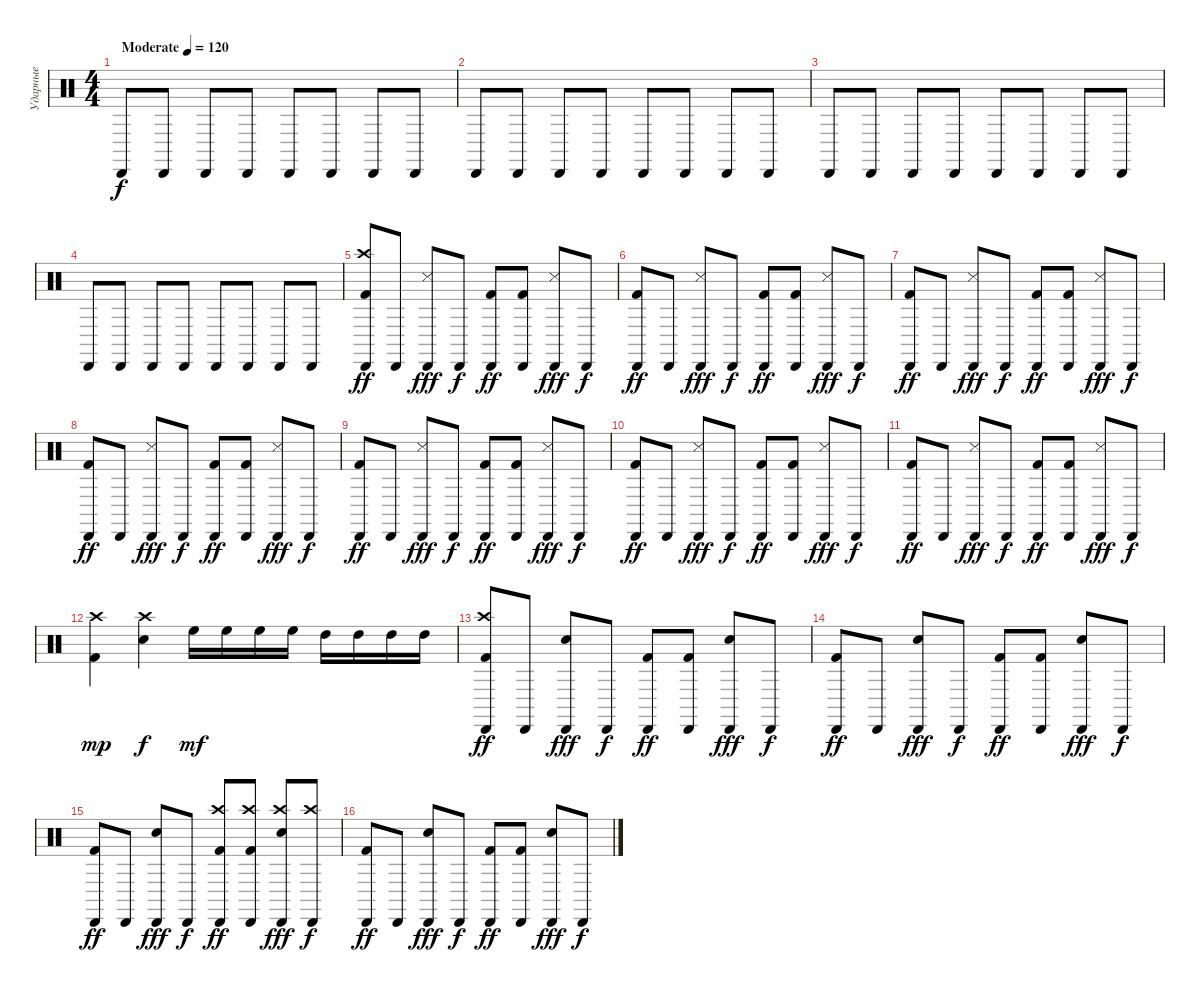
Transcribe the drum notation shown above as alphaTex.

\track ("Ударные" "Ударные") {instrument percussion}
\staff {score}
\articulation defaults
\ts (4 4)
\tempo (120 "Moderate")
\clef neutral
\ks c "Cabasa (hit)".8{dy f} "Cabasa (hit)".8 "Cabasa (hit)".8 "Cabasa (hit)".8 "Cabasa (hit)".8 "Cabasa (hit)".8 "Cabasa (hit)".8 "Cabasa (hit)".8
|
"Cabasa (hit)".8 "Cabasa (hit)".8 "Cabasa (hit)".8 "Cabasa (hit)".8 "Cabasa (hit)".8 "Cabasa (hit)".8 "Cabasa (hit)".8 "Cabasa (hit)".8 |
"Cabasa (hit)".8 "Cabasa (hit)".8 "Cabasa (hit)".8 "Cabasa (hit)".8 "Cabasa (hit)".8 "Cabasa (hit)".8 "Cabasa (hit)".8 "Cabasa (hit)".8 |
"Cabasa (hit)".8 "Cabasa (hit)".8 "Cabasa (hit)".8 "Cabasa (hit)".8 "Cabasa (hit)".8 "Cabasa (hit)".8 "Cabasa (hit)".8 "Cabasa (hit)".8 |
("Cabasa (hit)" "Kick (hit) 2" "Crash high (hit)").8{dy ff} "Cabasa (hit)".8 ("Snare (side stick) 3" "Cabasa (hit)").8{dy fff} "Cabasa (hit)".8{dy f} ("Cabasa (hit)" "Kick (hit) 2").8{dy ff} ("Cabasa (hit)" "Kick (hit) 2").8 ("Snare (side stick) 3" "Cabasa (hit)").8{dy fff} "Cabasa (hit)".8{dy f} |
("Cabasa (hit)" "Kick (hit) 2").8{dy ff} "Cabasa (hit)".8 ("Snare (side stick) 3" "Cabasa (hit)").8{dy fff} "Cabasa (hit)".8{dy f} ("Cabasa (hit)" "Kick (hit) 2").8{dy ff} ("Cabasa (hit)" "Kick (hit) 2").8 ("Snare (side stick) 3" "Cabasa (hit)").8{dy fff} "Cabasa (hit)".8{dy f} |
("Cabasa (hit)" "Kick (hit) 2").8{dy ff} "Cabasa (hit)".8 ("Snare (side stick) 3" "Cabasa (hit)").8{dy fff} "Cabasa (hit)".8{dy f} ("Cabasa (hit)" "Kick (hit) 2").8{dy ff} ("Cabasa (hit)" "Kick (hit) 2").8 ("Snare (side stick) 3" "Cabasa (hit)").8{dy fff} "Cabasa (hit)".8{dy f} |
("Cabasa (hit)" "Kick (hit) 2").8{dy ff} "Cabasa (hit)".8 ("Snare (side stick) 3" "Cabasa (hit)").8{dy fff} "Cabasa (hit)".8{dy f} ("Cabasa (hit)" "Kick (hit) 2").8{dy ff} ("Cabasa (hit)" "Kick (hit) 2").8 ("Snare (side stick) 3" "Cabasa (hit)").8{dy fff} "Cabasa (hit)".8{dy f} |
("Cabasa (hit)" "Kick (hit) 2").8{dy ff} "Cabasa (hit)".8 ("Snare (side stick) 3" "Cabasa (hit)").8{dy fff} "Cabasa (hit)".8{dy f} ("Cabasa (hit)" "Kick (hit) 2").8{dy ff} ("Cabasa (hit)" "Kick (hit) 2").8 ("Snare (side stick) 3" "Cabasa (hit)").8{dy fff} "Cabasa (hit)".8{dy f} |
("Cabasa (hit)" "Kick (hit) 2").8{dy ff} "Cabasa (hit)".8 ("Snare (side stick) 3" "Cabasa (hit)").8{dy fff} "Cabasa (hit)".8{dy f} ("Cabasa (hit)" "Kick (hit) 2").8{dy ff} ("Cabasa (hit)" "Kick (hit) 2").8 ("Snare (side stick) 3" "Cabasa (hit)").8{dy fff} "Cabasa (hit)".8{dy f} |
("Cabasa (hit)" "Kick (hit) 2").8{dy ff} "Cabasa (hit)".8 ("Snare (side stick) 3" "Cabasa (hit)").8{dy fff} "Cabasa (hit)".8{dy f} ("Cabasa (hit)" "Kick (hit) 2").8{dy ff} ("Cabasa (hit)" "Kick (hit) 2").8 ("Snare (side stick) 3" "Cabasa (hit)").8{dy fff} "Cabasa (hit)".8{dy f} |
("Crash high (hit)" "Kick (hit) 2").4{dy mp} ("Crash high (hit)" "Snare (hit) 2").4{dy f} "High Floor Tom (hit)".16{dy mf} "High Floor Tom (hit)".16 "High Floor Tom (hit)".16 "High Floor Tom (hit)".16 "High Tom (hit)".16 "High Tom (hit)".16 "High Tom (hit)".16 "High Tom (hit)".16 |
("Cabasa (hit)" "Kick (hit) 2" "Crash high (hit)").8{dy ff} "Cabasa (hit)".8 ("Snare (hit) 2" "Cabasa (hit)").8{dy fff} "Cabasa (hit)".8{dy f} ("Cabasa (hit)" "Kick (hit) 2").8{dy ff} ("Cabasa (hit)" "Kick (hit) 2").8 ("Snare (hit) 2" "Cabasa (hit)").8{dy fff} "Cabasa (hit)".8{dy f} |
("Cabasa (hit)" "Kick (hit) 2").8{dy ff} "Cabasa (hit)".8 ("Snare (hit) 2" "Cabasa (hit)").8{dy fff} "Cabasa (hit)".8{dy f} ("Cabasa (hit)" "Kick (hit) 2").8{dy ff} ("Cabasa (hit)" "Kick (hit) 2").8 ("Snare (hit) 2" "Cabasa (hit)").8{dy fff} "Cabasa (hit)".8{dy f} |
("Cabasa (hit)" "Kick (hit) 2").8{dy ff} "Cabasa (hit)".8 ("Snare (hit) 2" "Cabasa (hit)").8{dy fff} "Cabasa (hit)".8{dy f} ("Cabasa (hit)" "Kick (hit) 2" "Crash high (hit)").8{dy ff} ("Cabasa (hit)" "Kick (hit) 2" "Crash high (hit)").8 ("Snare (hit) 2" "Cabasa (hit)" "Crash high (hit)").8{dy fff} ("Cabasa (hit)" "Crash high (hit)").8{dy f} |
("Cabasa (hit)" "Kick (hit) 2").8{dy ff} "Cabasa (hit)".8 ("Snare (hit) 2" "Cabasa (hit)").8{dy fff} "Cabasa (hit)".8{dy f} ("Cabasa (hit)" "Kick (hit) 2").8{dy ff} ("Cabasa (hit)" "Kick (hit) 2").8 ("Snare (hit) 2" "Cabasa (hit)").8{dy fff} "Cabasa (hit)".8{dy f}
